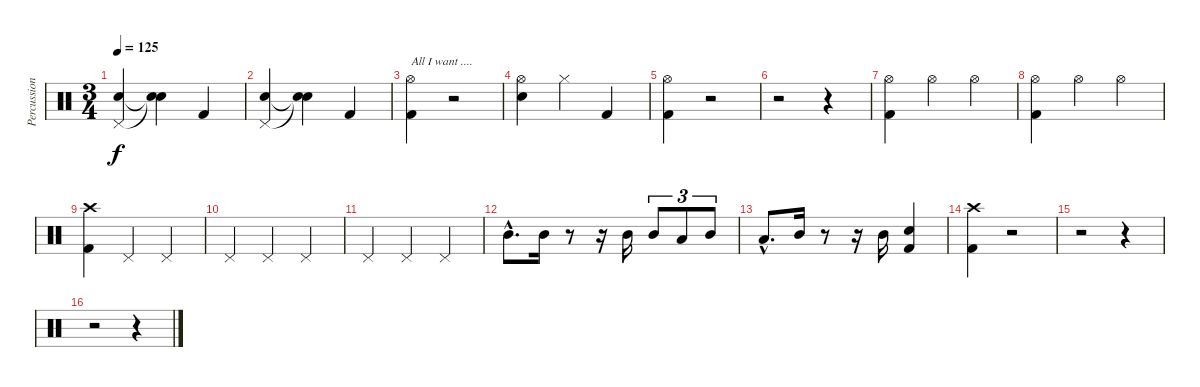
\track ("Percussion" "Percussion") {instrument percussion}
\staff {score}
\articulation defaults
\ts (3 4)
\tempo 125
\clef neutral
\ks c
("Pedal Hi-Hat (hit)" "Snare (hit) 2").4{dy f} ("Snare (hit)"{t} "Snare (hit)"{t}).4 "Kick (hit) 2".4 |
("Pedal Hi-Hat (hit)" "Snare (hit) 2").4 ("Snare (hit)"{t} "Snare (hit)"{t}).4 "Kick (hit) 2".4 |
("Hi-Hat (open)" "Kick (hit) 2").4{txt "All I want ...."} r.2 |
("Hi-Hat (open)" "Snare (hit) 2").4 "Hi-Hat (closed)".4 "Kick (hit) 2".4 |
("Hi-Hat (open)" "Kick (hit) 2").4 r.2 |
r.2 r.4 |
("Hi-Hat (open)" "Kick (hit) 2").4 "Hi-Hat (open)".4 "Hi-Hat (open)".4 |
("Hi-Hat (open)" "Kick (hit) 2").4 "Hi-Hat (open)".4 "Hi-Hat (open)".4 |
("Crash high (hit)" "Kick (hit) 2").4 "Pedal Hi-Hat (hit)".4 "Pedal Hi-Hat (hit)".4 |
"Pedal Hi-Hat (hit)".4 "Pedal Hi-Hat (hit)".4 "Pedal Hi-Hat (hit)".4 |
"Pedal Hi-Hat (hit)".4 "Pedal Hi-Hat (hit)".4 "Pedal Hi-Hat (hit)".4 |
"Mid Tom (hit)"{hac}.8{d} "Mid Tom (hit)".16 r.8 r.16 "Mid Tom (hit)".16 "Mid Tom (hit)".8{tu (3 2)} "Low Tom (hit)".8{tu (3 2)} "Mid Tom (hit)".8{tu (3 2)} |
"Low Tom (hit)"{hac}.8{d} "Mid Tom (hit)".16 r.8 r.16 "Mid Tom (hit)".16 ("Snare (hit) 2" "Kick (hit) 2").4 |
("Crash high (hit)" "Kick (hit) 2").4 r.2 |
r.2 r.4 |
r.2 r.4
